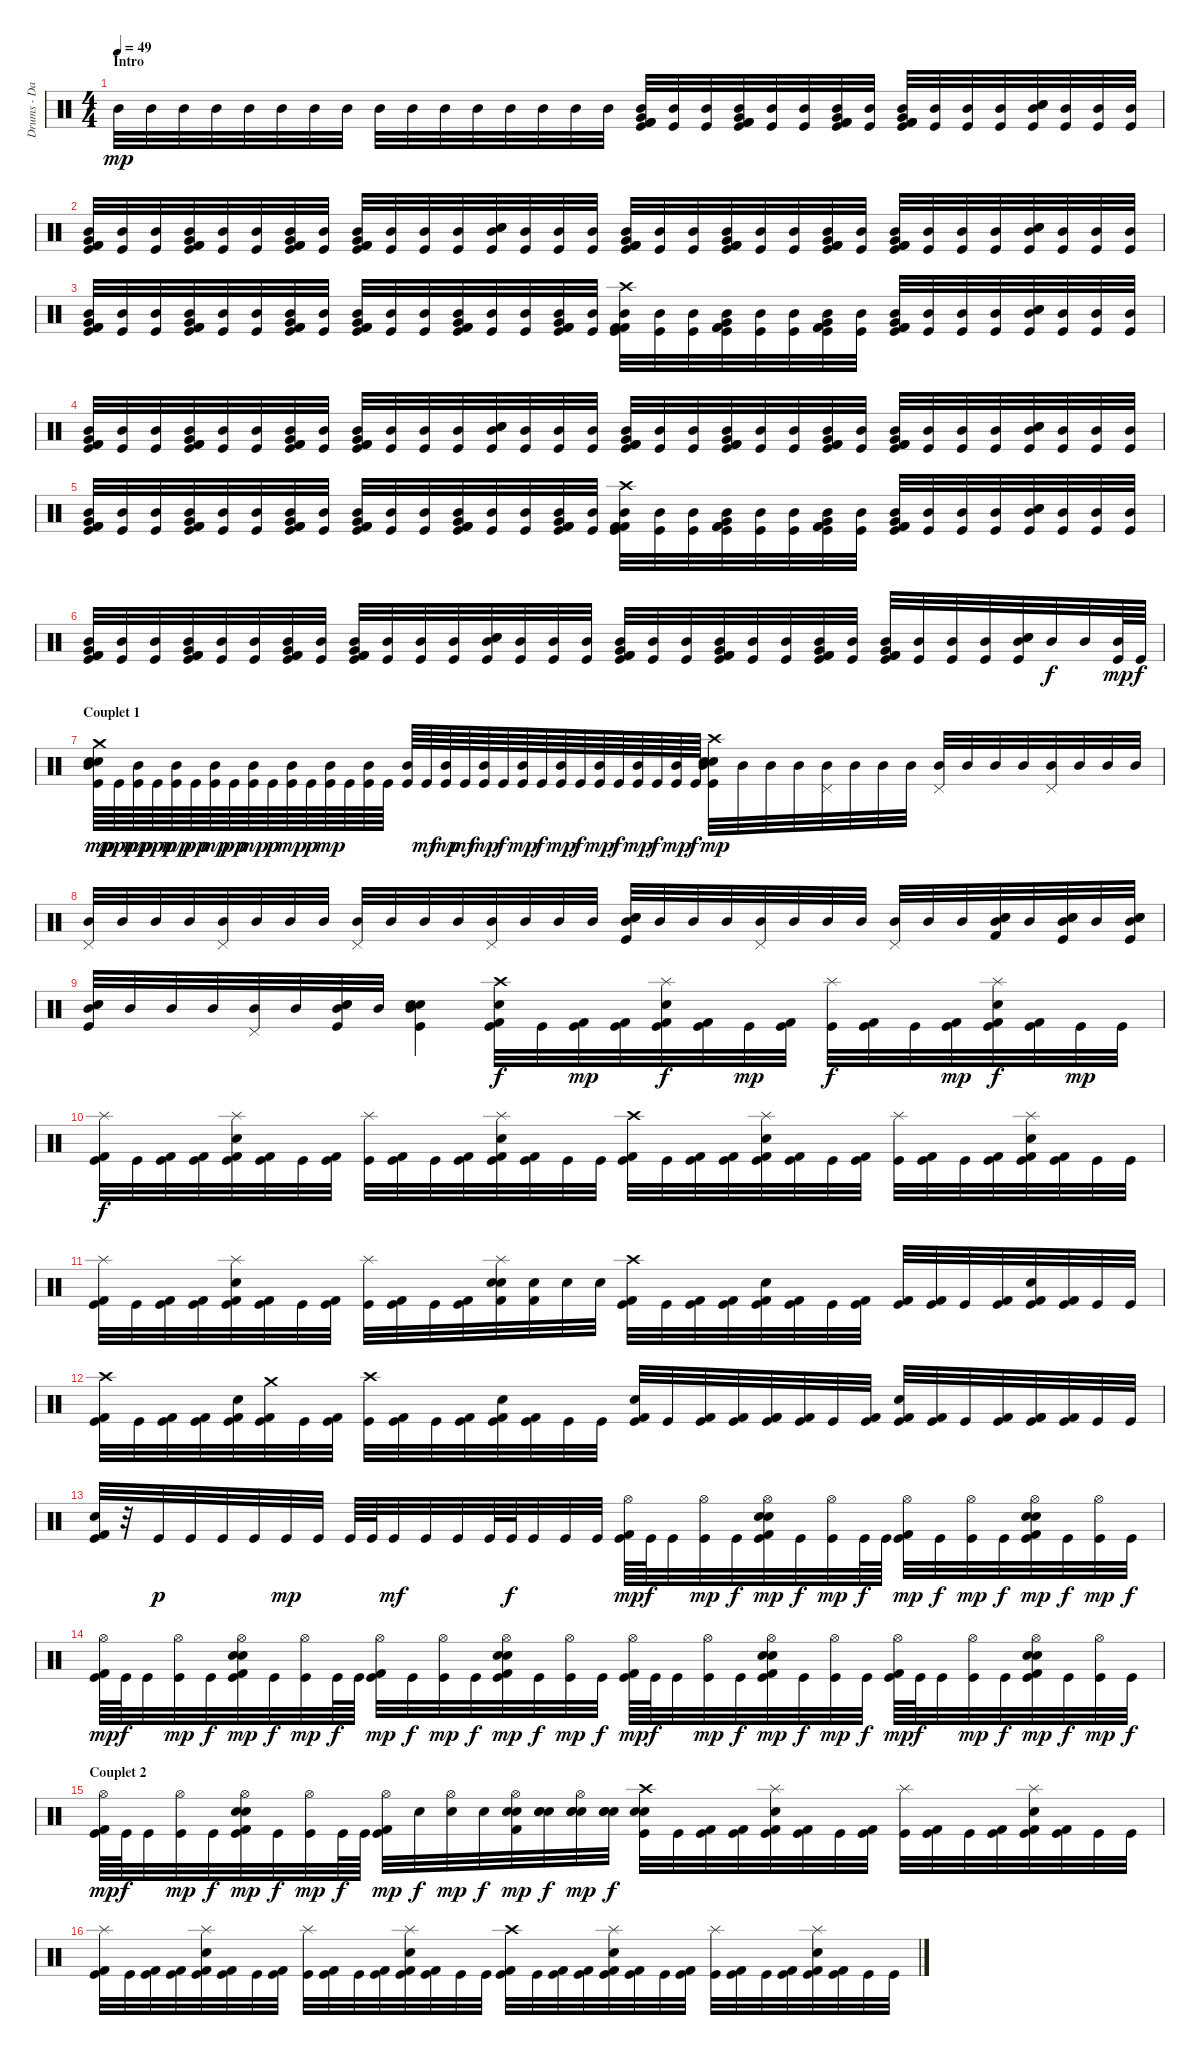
\track ("Drums - Dan Zimmermann" "Drums - Da") {instrument percussion}
\staff {score}
\articulation defaults
\ts (4 4)
\section ("" "Intro")
\tempo 49
\clef neutral
\ks c "Mid Tom (hit)".32{dy mp} "Mid Tom (hit)".32 "Mid Tom (hit)".32 "Mid Tom (hit)".32 "Mid Tom (hit)".32 "Mid Tom (hit)".32 "Mid Tom (hit)".32 "Mid Tom (hit)".32 "Mid Tom (hit)".32 "Mid Tom (hit)".32 "Mid Tom (hit)".32 "Mid Tom (hit)".32 "Mid Tom (hit)".32 "Mid Tom (hit)".32 "Mid Tom (hit)".32 "Mid Tom (hit)".32
("Kick (hit)" "Kick (hit) 2" "Kick (hit) 2" "Very Low Tom (hit)" "Mid Tom (hit)").32 ("Kick (hit)" "Mid Tom (hit)").32 ("Kick (hit)" "Mid Tom (hit)").32 ("Kick (hit)" "Kick (hit) 2" "Kick (hit) 2" "Very Low Tom (hit)" "Mid Tom (hit)").32 ("Kick (hit)" "Mid Tom (hit)").32 ("Kick (hit)" "Mid Tom (hit)").32 ("Kick (hit)" "Kick (hit) 2" "Kick (hit) 2" "Very Low Tom (hit)" "Mid Tom (hit)").32 ("Kick (hit)" "Mid Tom (hit)").32 ("Kick (hit)" "Kick (hit) 2" "Kick (hit) 2" "Very Low Tom (hit)" "Mid Tom (hit)").32 ("Kick (hit)" "Mid Tom (hit)").32 ("Kick (hit)" "Mid Tom (hit)").32 ("Kick (hit)" "Mid Tom (hit)").32 ("Kick (hit)" "Snare (hit) 2" "Electric Snare (hit)" "Mid Tom (hit)").32 ("Kick (hit)" "Mid Tom (hit)").32 ("Kick (hit)" "Mid Tom (hit)").32 ("Kick (hit)" "Mid Tom (hit)").32 |
("Kick (hit)" "Kick (hit) 2" "Kick (hit) 2" "Very Low Tom (hit)" "Mid Tom (hit)").32 ("Kick (hit)" "Mid Tom (hit)").32 ("Kick (hit)" "Mid Tom (hit)").32 ("Kick (hit)" "Kick (hit) 2" "Kick (hit) 2" "Very Low Tom (hit)" "Mid Tom (hit)").32 ("Kick (hit)" "Mid Tom (hit)").32 ("Kick (hit)" "Mid Tom (hit)").32 ("Kick (hit)" "Kick (hit) 2" "Kick (hit) 2" "Very Low Tom (hit)" "Mid Tom (hit)").32 ("Kick (hit)" "Mid Tom (hit)").32 ("Kick (hit)" "Kick (hit) 2" "Kick (hit) 2" "Very Low Tom (hit)" "Mid Tom (hit)").32 ("Kick (hit)" "Mid Tom (hit)").32 ("Kick (hit)" "Mid Tom (hit)").32 ("Kick (hit)" "Mid Tom (hit)").32 ("Kick (hit)" "Snare (hit) 2" "Electric Snare (hit)" "Mid Tom (hit)").32 ("Kick (hit)" "Mid Tom (hit)").32 ("Kick (hit)" "Mid Tom (hit)").32 ("Kick (hit)" "Mid Tom (hit)").32 ("Kick (hit)" "Kick (hit) 2" "Kick (hit) 2" "Very Low Tom (hit)" "Mid Tom (hit)").32 ("Kick (hit)" "Mid Tom (hit)").32 ("Kick (hit)" "Mid Tom (hit)").32 ("Kick (hit)" "Kick (hit) 2" "Kick (hit) 2" "Very Low Tom (hit)" "Mid Tom (hit)").32 ("Kick (hit)" "Mid Tom (hit)").32 ("Kick (hit)" "Mid Tom (hit)").32 ("Kick (hit)" "Kick (hit) 2" "Kick (hit) 2" "Very Low Tom (hit)" "Mid Tom (hit)").32 ("Kick (hit)" "Mid Tom (hit)").32 ("Kick (hit)" "Kick (hit) 2" "Kick (hit) 2" "Very Low Tom (hit)" "Mid Tom (hit)").32 ("Kick (hit)" "Mid Tom (hit)").32 ("Kick (hit)" "Mid Tom (hit)").32 ("Kick (hit)" "Mid Tom (hit)").32 ("Kick (hit)" "Snare (hit) 2" "Electric Snare (hit)" "Mid Tom (hit)").32 ("Kick (hit)" "Mid Tom (hit)").32 ("Kick (hit)" "Mid Tom (hit)").32 ("Kick (hit)" "Mid Tom (hit)").32 |
("Kick (hit)" "Kick (hit) 2" "Kick (hit) 2" "Very Low Tom (hit)" "Mid Tom (hit)").32 ("Kick (hit)" "Mid Tom (hit)").32 ("Kick (hit)" "Mid Tom (hit)").32 ("Kick (hit)" "Kick (hit) 2" "Kick (hit) 2" "Very Low Tom (hit)" "Mid Tom (hit)").32 ("Kick (hit)" "Mid Tom (hit)").32 ("Kick (hit)" "Mid Tom (hit)").32 ("Kick (hit)" "Kick (hit) 2" "Kick (hit) 2" "Very Low Tom (hit)" "Mid Tom (hit)").32 ("Kick (hit)" "Mid Tom (hit)").32 ("Kick (hit)" "Kick (hit) 2" "Kick (hit) 2" "Very Low Tom (hit)" "Mid Tom (hit)").32 ("Kick (hit)" "Mid Tom (hit)").32 ("Kick (hit)" "Mid Tom (hit)").32 ("Kick (hit)" "Kick (hit) 2" "Kick (hit) 2" "Very Low Tom (hit)" "Mid Tom (hit)").32 ("Kick (hit)" "Mid Tom (hit)").32 ("Kick (hit)" "Mid Tom (hit)").32 ("Kick (hit)" "Kick (hit) 2" "Kick (hit) 2" "Very Low Tom (hit)" "Mid Tom (hit)").32 ("Kick (hit)" "Mid Tom (hit)").32 ("Kick (hit)" "Kick (hit) 2" "Kick (hit) 2" "Crash high (hit)" "Mid Tom (hit)").32 ("Kick (hit)" "Mid Tom (hit)").32 ("Kick (hit)" "Mid Tom (hit)").32 ("Kick (hit)" "Kick (hit) 2" "Kick (hit) 2" "Very Low Tom (hit)" "Mid Tom (hit)").32 ("Kick (hit)" "Mid Tom (hit)").32 ("Kick (hit)" "Mid Tom (hit)").32 ("Kick (hit)" "Kick (hit) 2" "Kick (hit) 2" "Very Low Tom (hit)" "Mid Tom (hit)").32 ("Kick (hit)" "Mid Tom (hit)").32 ("Kick (hit)" "Kick (hit) 2" "Kick (hit) 2" "Very Low Tom (hit)" "Mid Tom (hit)").32 ("Kick (hit)" "Mid Tom (hit)").32 ("Kick (hit)" "Mid Tom (hit)").32 ("Kick (hit)" "Mid Tom (hit)").32 ("Kick (hit)" "Snare (hit) 2" "Electric Snare (hit)" "Mid Tom (hit)").32 ("Kick (hit)" "Mid Tom (hit)").32 ("Kick (hit)" "Mid Tom (hit)").32 ("Kick (hit)" "Mid Tom (hit)").32 |
("Kick (hit)" "Kick (hit) 2" "Kick (hit) 2" "Very Low Tom (hit)" "Mid Tom (hit)").32 ("Kick (hit)" "Mid Tom (hit)").32 ("Kick (hit)" "Mid Tom (hit)").32 ("Kick (hit)" "Kick (hit) 2" "Kick (hit) 2" "Very Low Tom (hit)" "Mid Tom (hit)").32 ("Kick (hit)" "Mid Tom (hit)").32 ("Kick (hit)" "Mid Tom (hit)").32 ("Kick (hit)" "Kick (hit) 2" "Kick (hit) 2" "Very Low Tom (hit)" "Mid Tom (hit)").32 ("Kick (hit)" "Mid Tom (hit)").32 ("Kick (hit)" "Kick (hit) 2" "Kick (hit) 2" "Very Low Tom (hit)" "Mid Tom (hit)").32 ("Kick (hit)" "Mid Tom (hit)").32 ("Kick (hit)" "Mid Tom (hit)").32 ("Kick (hit)" "Mid Tom (hit)").32 ("Kick (hit)" "Snare (hit) 2" "Electric Snare (hit)" "Mid Tom (hit)").32 ("Kick (hit)" "Mid Tom (hit)").32 ("Kick (hit)" "Mid Tom (hit)").32 ("Kick (hit)" "Mid Tom (hit)").32 ("Kick (hit)" "Kick (hit) 2" "Kick (hit) 2" "Very Low Tom (hit)" "Mid Tom (hit)").32 ("Kick (hit)" "Mid Tom (hit)").32 ("Kick (hit)" "Mid Tom (hit)").32 ("Kick (hit)" "Kick (hit) 2" "Kick (hit) 2" "Very Low Tom (hit)" "Mid Tom (hit)").32 ("Kick (hit)" "Mid Tom (hit)").32 ("Kick (hit)" "Mid Tom (hit)").32 ("Kick (hit)" "Kick (hit) 2" "Kick (hit) 2" "Very Low Tom (hit)" "Mid Tom (hit)").32 ("Kick (hit)" "Mid Tom (hit)").32 ("Kick (hit)" "Kick (hit) 2" "Kick (hit) 2" "Very Low Tom (hit)" "Mid Tom (hit)").32 ("Kick (hit)" "Mid Tom (hit)").32 ("Kick (hit)" "Mid Tom (hit)").32 ("Kick (hit)" "Mid Tom (hit)").32 ("Kick (hit)" "Snare (hit) 2" "Electric Snare (hit)" "Mid Tom (hit)").32 ("Kick (hit)" "Mid Tom (hit)").32 ("Kick (hit)" "Mid Tom (hit)").32 ("Kick (hit)" "Mid Tom (hit)").32 |
("Kick (hit)" "Kick (hit) 2" "Kick (hit) 2" "Very Low Tom (hit)" "Mid Tom (hit)").32 ("Kick (hit)" "Mid Tom (hit)").32 ("Kick (hit)" "Mid Tom (hit)").32 ("Kick (hit)" "Kick (hit) 2" "Kick (hit) 2" "Very Low Tom (hit)" "Mid Tom (hit)").32 ("Kick (hit)" "Mid Tom (hit)").32 ("Kick (hit)" "Mid Tom (hit)").32 ("Kick (hit)" "Kick (hit) 2" "Kick (hit) 2" "Very Low Tom (hit)" "Mid Tom (hit)").32 ("Kick (hit)" "Mid Tom (hit)").32 ("Kick (hit)" "Kick (hit) 2" "Kick (hit) 2" "Very Low Tom (hit)" "Mid Tom (hit)").32 ("Kick (hit)" "Mid Tom (hit)").32 ("Kick (hit)" "Mid Tom (hit)").32 ("Kick (hit)" "Kick (hit) 2" "Kick (hit) 2" "Very Low Tom (hit)" "Mid Tom (hit)").32 ("Kick (hit)" "Mid Tom (hit)").32 ("Kick (hit)" "Mid Tom (hit)").32 ("Kick (hit)" "Kick (hit) 2" "Kick (hit) 2" "Very Low Tom (hit)" "Mid Tom (hit)").32 ("Kick (hit)" "Mid Tom (hit)").32 ("Kick (hit)" "Kick (hit) 2" "Kick (hit) 2" "Crash high (hit)" "Mid Tom (hit)").32 ("Kick (hit)" "Mid Tom (hit)").32 ("Kick (hit)" "Mid Tom (hit)").32 ("Kick (hit)" "Kick (hit) 2" "Kick (hit) 2" "Very Low Tom (hit)" "Mid Tom (hit)").32 ("Kick (hit)" "Mid Tom (hit)").32 ("Kick (hit)" "Mid Tom (hit)").32 ("Kick (hit)" "Kick (hit) 2" "Kick (hit) 2" "Very Low Tom (hit)" "Mid Tom (hit)").32 ("Kick (hit)" "Mid Tom (hit)").32 ("Kick (hit)" "Kick (hit) 2" "Kick (hit) 2" "Very Low Tom (hit)" "Mid Tom (hit)").32 ("Kick (hit)" "Mid Tom (hit)").32 ("Kick (hit)" "Mid Tom (hit)").32 ("Kick (hit)" "Mid Tom (hit)").32 ("Kick (hit)" "Snare (hit) 2" "Electric Snare (hit)" "Mid Tom (hit)").32 ("Kick (hit)" "Mid Tom (hit)").32 ("Kick (hit)" "Mid Tom (hit)").32 ("Kick (hit)" "Mid Tom (hit)").32 |
("Kick (hit)" "Kick (hit) 2" "Kick (hit) 2" "Very Low Tom (hit)" "Mid Tom (hit)").32 ("Kick (hit)" "Mid Tom (hit)").32 ("Kick (hit)" "Mid Tom (hit)").32 ("Kick (hit)" "Kick (hit) 2" "Kick (hit) 2" "Very Low Tom (hit)" "Mid Tom (hit)").32 ("Kick (hit)" "Mid Tom (hit)").32 ("Kick (hit)" "Mid Tom (hit)").32 ("Kick (hit)" "Kick (hit) 2" "Kick (hit) 2" "Very Low Tom (hit)" "Mid Tom (hit)").32 ("Kick (hit)" "Mid Tom (hit)").32 ("Kick (hit)" "Kick (hit) 2" "Kick (hit) 2" "Very Low Tom (hit)" "Mid Tom (hit)").32 ("Kick (hit)" "Mid Tom (hit)").32 ("Kick (hit)" "Mid Tom (hit)").32 ("Kick (hit)" "Mid Tom (hit)").32 ("Kick (hit)" "Snare (hit) 2" "Electric Snare (hit)" "Mid Tom (hit)").32 ("Kick (hit)" "Mid Tom (hit)").32 ("Kick (hit)" "Mid Tom (hit)").32 ("Kick (hit)" "Mid Tom (hit)").32 ("Kick (hit)" "Kick (hit) 2" "Kick (hit) 2" "Very Low Tom (hit)" "Mid Tom (hit)").32 ("Kick (hit)" "Mid Tom (hit)").32 ("Kick (hit)" "Mid Tom (hit)").32 ("Kick (hit)" "Kick (hit) 2" "Kick (hit) 2" "Very Low Tom (hit)" "Mid Tom (hit)").32 ("Kick (hit)" "Mid Tom (hit)").32 ("Kick (hit)" "Mid Tom (hit)").32 ("Kick (hit)" "Kick (hit) 2" "Kick (hit) 2" "Very Low Tom (hit)" "Mid Tom (hit)").32 ("Kick (hit)" "Mid Tom (hit)").32 ("Kick (hit)" "Kick (hit) 2" "Kick (hit) 2" "Very Low Tom (hit)" "Mid Tom (hit)").32 ("Kick (hit)" "Mid Tom (hit)").32 ("Kick (hit)" "Mid Tom (hit)").32 ("Kick (hit)" "Mid Tom (hit)").32 ("Kick (hit)" "Snare (hit) 2" "Electric Snare (hit)" "Mid Tom (hit)").32 "Mid Tom (hit)".32{dy f} "Mid Tom (hit)".32 ("Kick (hit)" "Mid Tom (hit)").64{dy mp} "Kick (hit)".64{dy f} |
\section ("" "Couplet 1")
("Kick (hit)" "Snare (hit) 2" "Electric Snare (hit)" "Crash medium (hit)" "Mid Tom (hit)").64{dy mp} "Kick (hit)".64{dy ppp} ("Kick (hit)" "Mid Tom (hit)").64{dy mp} "Kick (hit)".64{dy ppp} ("Kick (hit)" "Mid Tom (hit)").64{dy mp} "Kick (hit)".64{dy pp} ("Kick (hit)" "Mid Tom (hit)").64{dy mp} "Kick (hit)".64{dy pp} ("Kick (hit)" "Mid Tom (hit)").64{dy mp} "Kick (hit)".64{dy p} ("Kick (hit)" "Mid Tom (hit)").64{dy mp} "Kick (hit)".64{dy p} ("Kick (hit)" "Mid Tom (hit)").64{dy mp} "Kick (hit)".64 ("Kick (hit)" "Mid Tom (hit)").64 "Kick (hit)".64 ("Kick (hit)" "Mid Tom (hit)").64 "Kick (hit)".64{dy mf} ("Kick (hit)" "Mid Tom (hit)").64{dy mp} "Kick (hit)".64{dy mf} ("Kick (hit)" "Mid Tom (hit)").64{dy mp} "Kick (hit)".64{dy f} ("Kick (hit)" "Mid Tom (hit)").64{dy mp} "Kick (hit)".64{dy f} ("Kick (hit)" "Mid Tom (hit)").64{dy mp} "Kick (hit)".64{dy f} ("Kick (hit)" "Mid Tom (hit)").64{dy mp} "Kick (hit)".64{dy f} ("Kick (hit)" "Mid Tom (hit)").64{dy mp} "Kick (hit)".64{dy f} ("Kick (hit)" "Mid Tom (hit)").64{dy mp} "Kick (hit)".64{dy f} ("Kick (hit)" "Snare (hit) 2" "Snare (hit) 2" "Crash high (hit)" "Mid Tom (hit)").32{dy mp} "Mid Tom (hit)".32 "Mid Tom (hit)".32 "Mid Tom (hit)".32 ("Pedal Hi-Hat (hit)" "Mid Tom (hit)").32 "Mid Tom (hit)".32 "Mid Tom (hit)".32 "Mid Tom (hit)".32 ("Pedal Hi-Hat (hit)" "Mid Tom (hit)").32 "Mid Tom (hit)".32 "Mid Tom (hit)".32 "Mid Tom (hit)".32 ("Pedal Hi-Hat (hit)" "Mid Tom (hit)").32 "Mid Tom (hit)".32 "Mid Tom (hit)".32 "Mid Tom (hit)".32 |
("Pedal Hi-Hat (hit)" "Mid Tom (hit)").32 "Mid Tom (hit)".32 "Mid Tom (hit)".32 "Mid Tom (hit)".32 ("Pedal Hi-Hat (hit)" "Mid Tom (hit)").32 "Mid Tom (hit)".32 "Mid Tom (hit)".32 "Mid Tom (hit)".32 ("Pedal Hi-Hat (hit)" "Mid Tom (hit)").32 "Mid Tom (hit)".32 "Mid Tom (hit)".32 "Mid Tom (hit)".32 ("Pedal Hi-Hat (hit)" "Mid Tom (hit)").32 "Mid Tom (hit)".32 "Mid Tom (hit)".32 "Mid Tom (hit)".32 ("Kick (hit)" "Snare (hit) 2" "Snare (hit) 2" "Mid Tom (hit)").32 "Mid Tom (hit)".32 "Mid Tom (hit)".32 "Mid Tom (hit)".32 ("Pedal Hi-Hat (hit)" "Mid Tom (hit)").32 "Mid Tom (hit)".32 "Mid Tom (hit)".32 "Mid Tom (hit)".32 ("Pedal Hi-Hat (hit)" "Mid Tom (hit)").32 "Mid Tom (hit)".32 "Mid Tom (hit)".32 ("Kick (hit) 2" "Snare (hit) 2" "Snare (hit) 2" "Mid Tom (hit)").32 "Mid Tom (hit)".32 ("Kick (hit)" "Snare (hit) 2" "Snare (hit) 2" "Mid Tom (hit)").32 "Mid Tom (hit)".32 ("Kick (hit)" "Snare (hit) 2" "Snare (hit) 2" "Mid Tom (hit)").32 |
("Kick (hit)" "Snare (hit) 2" "Snare (hit) 2" "Mid Tom (hit)").32 "Mid Tom (hit)".32 "Mid Tom (hit)".32 "Mid Tom (hit)".32 ("Pedal Hi-Hat (hit)" "Mid Tom (hit)").32 "Mid Tom (hit)".32 ("Kick (hit)" "Snare (hit) 2" "Snare (hit) 2" "Mid Tom (hit)").32 "Mid Tom (hit)".32 ("Kick (hit)" "Snare (hit) 2" "Snare (hit) 2" "Mid Tom (hit)").4 ("Kick (hit)" "Kick (hit) 2" "Snare (hit) 2" "Crash high (hit)").32{dy f} "Kick (hit)".32 ("Kick (hit)" "Kick (hit) 2").32{dy mp} ("Kick (hit)" "Kick (hit) 2").32 ("Kick (hit)" "Kick (hit) 2" "Electric Snare (hit)" "Splash (hit)").32{dy f} ("Kick (hit)" "Kick (hit) 2").32 "Kick (hit)".32{dy mp} ("Kick (hit)" "Kick (hit) 2").32 ("Kick (hit)" "Splash (hit)").32{dy f} ("Kick (hit)" "Kick (hit) 2").32 "Kick (hit)".32 ("Kick (hit)" "Kick (hit) 2").32{dy mp} ("Kick (hit)" "Kick (hit) 2" "Electric Snare (hit)" "Splash (hit)").32{dy f} ("Kick (hit)" "Kick (hit) 2").32 "Kick (hit)".32{dy mp} "Kick (hit)".32 |
("Kick (hit)" "Kick (hit) 2" "Splash (hit)").32{dy f} "Kick (hit)".32 ("Kick (hit)" "Kick (hit) 2").32 ("Kick (hit)" "Kick (hit) 2").32 ("Kick (hit)" "Kick (hit) 2" "Electric Snare (hit)" "Splash (hit)").32 ("Kick (hit)" "Kick (hit) 2").32 "Kick (hit)".32 ("Kick (hit)" "Kick (hit) 2").32 ("Kick (hit)" "Splash (hit)").32 ("Kick (hit)" "Kick (hit) 2").32 "Kick (hit)".32 ("Kick (hit)" "Kick (hit) 2").32 ("Kick (hit)" "Kick (hit) 2" "Electric Snare (hit)" "Splash (hit)").32 ("Kick (hit)" "Kick (hit) 2").32 "Kick (hit)".32 "Kick (hit)".32 ("Kick (hit)" "Kick (hit) 2" "Crash high (hit)").32 "Kick (hit)".32 ("Kick (hit)" "Kick (hit) 2").32 ("Kick (hit)" "Kick (hit) 2").32 ("Kick (hit)" "Kick (hit) 2" "Electric Snare (hit)" "Splash (hit)").32 ("Kick (hit)" "Kick (hit) 2").32 "Kick (hit)".32 ("Kick (hit)" "Kick (hit) 2").32 ("Kick (hit)" "Splash (hit)").32 ("Kick (hit)" "Kick (hit) 2").32 "Kick (hit)".32 ("Kick (hit)" "Kick (hit) 2").32 ("Kick (hit)" "Kick (hit) 2" "Electric Snare (hit)" "Splash (hit)").32 ("Kick (hit)" "Kick (hit) 2").32 "Kick (hit)".32 "Kick (hit)".32 |
("Kick (hit)" "Kick (hit) 2" "Splash (hit)").32 "Kick (hit)".32 ("Kick (hit)" "Kick (hit) 2").32 ("Kick (hit)" "Kick (hit) 2").32 ("Kick (hit)" "Kick (hit) 2" "Electric Snare (hit)" "Splash (hit)").32 ("Kick (hit)" "Kick (hit) 2").32 "Kick (hit)".32 ("Kick (hit)" "Kick (hit) 2").32 ("Kick (hit)" "Splash (hit)").32 ("Kick (hit)" "Kick (hit) 2").32 "Kick (hit)".32 ("Kick (hit)" "Kick (hit) 2").32 ("Electric Snare (hit)" "Kick (hit) 2" "Electric Snare (hit)" "Splash (hit)").32 ("Electric Snare (hit)" "Kick (hit) 2").32 "Electric Snare (hit)".32 "Electric Snare (hit)".32 ("Kick (hit)" "Kick (hit) 2" "Crash high (hit)").32 "Kick (hit)".32 ("Kick (hit)" "Kick (hit) 2").32 ("Kick (hit)" "Kick (hit) 2").32 ("Kick (hit)" "Kick (hit) 2" "Electric Snare (hit)").32 ("Kick (hit)" "Kick (hit) 2").32 "Kick (hit)".32 ("Kick (hit)" "Kick (hit) 2").32 ("Kick (hit)" "Kick (hit) 2").32 ("Kick (hit)" "Kick (hit) 2").32 "Kick (hit)".32 ("Kick (hit)" "Kick (hit) 2").32 ("Kick (hit)" "Kick (hit) 2" "Electric Snare (hit)").32 ("Kick (hit)" "Kick (hit) 2").32 "Kick (hit)".32 "Kick (hit)".32 |
("Kick (hit)" "Kick (hit) 2" "Crash high (hit)").32 "Kick (hit)".32 ("Kick (hit)" "Kick (hit) 2").32 ("Kick (hit)" "Kick (hit) 2").32 ("Kick (hit)" "Kick (hit) 2" "Electric Snare (hit)").32 ("Kick (hit)" "Kick (hit) 2" "Crash medium (hit)").32 "Kick (hit)".32 ("Kick (hit)" "Kick (hit) 2").32 ("Kick (hit)" "Crash high (hit)").32 ("Kick (hit)" "Kick (hit) 2").32 "Kick (hit)".32 ("Kick (hit)" "Kick (hit) 2").32 ("Kick (hit)" "Kick (hit) 2" "Electric Snare (hit)").32 ("Kick (hit)" "Kick (hit) 2").32 "Kick (hit)".32 "Kick (hit)".32 ("Kick (hit)" "Kick (hit) 2" "Snare (hit) 2").32 "Kick (hit)".32 ("Kick (hit)" "Kick (hit) 2").32 ("Kick (hit)" "Kick (hit) 2").32 ("Kick (hit)" "Kick (hit) 2" "Kick (hit) 2").32 ("Kick (hit)" "Kick (hit) 2").32 "Kick (hit)".32 ("Kick (hit)" "Kick (hit) 2").32 ("Kick (hit)" "Kick (hit) 2" "Snare (hit) 2").32 ("Kick (hit)" "Kick (hit) 2").32 "Kick (hit)".32 ("Kick (hit)" "Kick (hit) 2").32 ("Kick (hit)" "Kick (hit) 2" "Kick (hit) 2").32 ("Kick (hit)" "Kick (hit) 2").32 "Kick (hit)".32 "Kick (hit)".32 |
("Kick (hit)" "Kick (hit) 2" "Snare (hit) 2").32 r.32 "Kick (hit)".32{dy p} "Kick (hit)".32 "Kick (hit)".32 "Kick (hit)".32 "Kick (hit)".32{dy mp} "Kick (hit)".32 "Kick (hit)".64 "Kick (hit)".64 "Kick (hit)".32{dy mf} "Kick (hit)".32 "Kick (hit)".32 "Kick (hit)".64 "Kick (hit)".64{dy f} "Kick (hit)".32 "Kick (hit)".32 "Kick (hit)".32 ("Kick (hit)" "Kick (hit) 2" "Hi-Hat (open)").64{dy mp} "Kick (hit)".64{dy f} "Kick (hit)".32 ("Kick (hit)" "Hi-Hat (open)").32{dy mp} "Kick (hit)".32{dy f} ("Kick (hit)" "Kick (hit) 2" "Snare (hit) 2" "Hi-Hat (open)" "Electric Snare (hit)").32{dy mp} "Kick (hit)".32{dy f} ("Kick (hit)" "Hi-Hat (open)").32{dy mp} "Kick (hit)".64{dy f} "Kick (hit)".64 ("Kick (hit)" "Kick (hit) 2" "Hi-Hat (open)").32{dy mp} "Kick (hit)".32{dy f} ("Kick (hit)" "Hi-Hat (open)").32{dy mp} "Kick (hit)".32{dy f} ("Kick (hit)" "Kick (hit) 2" "Snare (hit) 2" "Hi-Hat (open)" "Electric Snare (hit)").32{dy mp} "Kick (hit)".32{dy f} ("Kick (hit)" "Hi-Hat (open)").32{dy mp} "Kick (hit)".32{dy f} |
("Kick (hit)" "Kick (hit) 2" "Hi-Hat (open)").64{dy mp} "Kick (hit)".64{dy f} "Kick (hit)".32 ("Kick (hit)" "Hi-Hat (open)").32{dy mp} "Kick (hit)".32{dy f} ("Kick (hit)" "Kick (hit) 2" "Snare (hit) 2" "Hi-Hat (open)" "Electric Snare (hit)").32{dy mp} "Kick (hit)".32{dy f} ("Kick (hit)" "Hi-Hat (open)").32{dy mp} "Kick (hit)".64{dy f} "Kick (hit)".64 ("Kick (hit)" "Kick (hit) 2" "Hi-Hat (open)").32{dy mp} "Kick (hit)".32{dy f} ("Kick (hit)" "Hi-Hat (open)").32{dy mp} "Kick (hit)".32{dy f} ("Kick (hit)" "Kick (hit) 2" "Snare (hit) 2" "Hi-Hat (open)" "Electric Snare (hit)").32{dy mp} "Kick (hit)".32{dy f} ("Kick (hit)" "Hi-Hat (open)").32{dy mp} "Kick (hit)".32{dy f} ("Kick (hit)" "Kick (hit) 2" "Hi-Hat (open)").64{dy mp} "Kick (hit)".64{dy f} "Kick (hit)".32 ("Kick (hit)" "Hi-Hat (open)").32{dy mp} "Kick (hit)".32{dy f} ("Kick (hit)" "Kick (hit) 2" "Snare (hit) 2" "Hi-Hat (open)" "Electric Snare (hit)").32{dy mp} "Kick (hit)".32{dy f} ("Kick (hit)" "Hi-Hat (open)").32{dy mp} "Kick (hit)".32{dy f} ("Kick (hit)" "Kick (hit) 2" "Hi-Hat (open)").64{dy mp} "Kick (hit)".64{dy f} "Kick (hit)".32 ("Kick (hit)" "Hi-Hat (open)").32{dy mp} "Kick (hit)".32{dy f} ("Kick (hit)" "Kick (hit) 2" "Snare (hit) 2" "Hi-Hat (open)" "Electric Snare (hit)").32{dy mp} "Kick (hit)".32{dy f} ("Kick (hit)" "Hi-Hat (open)").32{dy mp} "Kick (hit)".32{dy f} |
\section ("" "Couplet 2")
("Kick (hit)" "Kick (hit) 2" "Hi-Hat (open)").64{dy mp} "Kick (hit)".64{dy f} "Kick (hit)".32 ("Kick (hit)" "Hi-Hat (open)").32{dy mp} "Kick (hit)".32{dy f} ("Kick (hit)" "Kick (hit) 2" "Snare (hit) 2" "Hi-Hat (open)" "Electric Snare (hit)").32{dy mp} "Kick (hit)".32{dy f} ("Kick (hit)" "Hi-Hat (open)").32{dy mp} "Kick (hit)".64{dy f} "Kick (hit)".64 ("Kick (hit)" "Kick (hit) 2" "Hi-Hat (open)").32{dy mp} "Snare (hit) 2".32{dy f} ("Snare (hit) 2" "Hi-Hat (open)").32{dy mp} "Snare (hit) 2".32{dy f} ("Snare (hit) 2" "Kick (hit) 2" "Snare (hit) 2" "Hi-Hat (open)").32{dy mp} ("Snare (hit) 2" "Snare (hit) 2" "Electric Snare (hit)").32{dy f} ("Snare (hit) 2" "Snare (hit) 2" "Electric Snare (hit)" "Hi-Hat (open)").32{dy mp} ("Snare (hit) 2" "Snare (hit) 2" "Electric Snare (hit)").32{dy f} ("Kick (hit)" "Snare (hit) 2" "Electric Snare (hit)" "Crash high (hit)").32 "Kick (hit)".32 ("Kick (hit)" "Kick (hit) 2").32 ("Kick (hit)" "Kick (hit) 2").32 ("Kick (hit)" "Kick (hit) 2" "Electric Snare (hit)" "Splash (hit)").32 ("Kick (hit)" "Kick (hit) 2").32 "Kick (hit)".32 ("Kick (hit)" "Kick (hit) 2").32 ("Kick (hit)" "Splash (hit)").32 ("Kick (hit)" "Kick (hit) 2").32 "Kick (hit)".32 ("Kick (hit)" "Kick (hit) 2").32 ("Kick (hit)" "Kick (hit) 2" "Electric Snare (hit)" "Splash (hit)").32 ("Kick (hit)" "Kick (hit) 2").32 "Kick (hit)".32 "Kick (hit)".32 |
("Kick (hit)" "Kick (hit) 2" "Splash (hit)").32 "Kick (hit)".32 ("Kick (hit)" "Kick (hit) 2").32 ("Kick (hit)" "Kick (hit) 2").32 ("Kick (hit)" "Kick (hit) 2" "Electric Snare (hit)" "Splash (hit)").32 ("Kick (hit)" "Kick (hit) 2").32 "Kick (hit)".32 ("Kick (hit)" "Kick (hit) 2").32 ("Kick (hit)" "Splash (hit)").32 ("Kick (hit)" "Kick (hit) 2").32 "Kick (hit)".32 ("Kick (hit)" "Kick (hit) 2").32 ("Kick (hit)" "Kick (hit) 2" "Electric Snare (hit)" "Splash (hit)").32 ("Kick (hit)" "Kick (hit) 2").32 "Kick (hit)".32 "Kick (hit)".32 ("Kick (hit)" "Kick (hit) 2" "Crash high (hit)").32 "Kick (hit)".32 ("Kick (hit)" "Kick (hit) 2").32 ("Kick (hit)" "Kick (hit) 2").32 ("Kick (hit)" "Kick (hit) 2" "Electric Snare (hit)" "Splash (hit)").32 ("Kick (hit)" "Kick (hit) 2").32 "Kick (hit)".32 ("Kick (hit)" "Kick (hit) 2").32 ("Kick (hit)" "Splash (hit)").32 ("Kick (hit)" "Kick (hit) 2").32 "Kick (hit)".32 ("Kick (hit)" "Kick (hit) 2").32 ("Kick (hit)" "Kick (hit) 2" "Electric Snare (hit)" "Splash (hit)").32 ("Kick (hit)" "Kick (hit) 2").32 "Kick (hit)".32 "Kick (hit)".32
